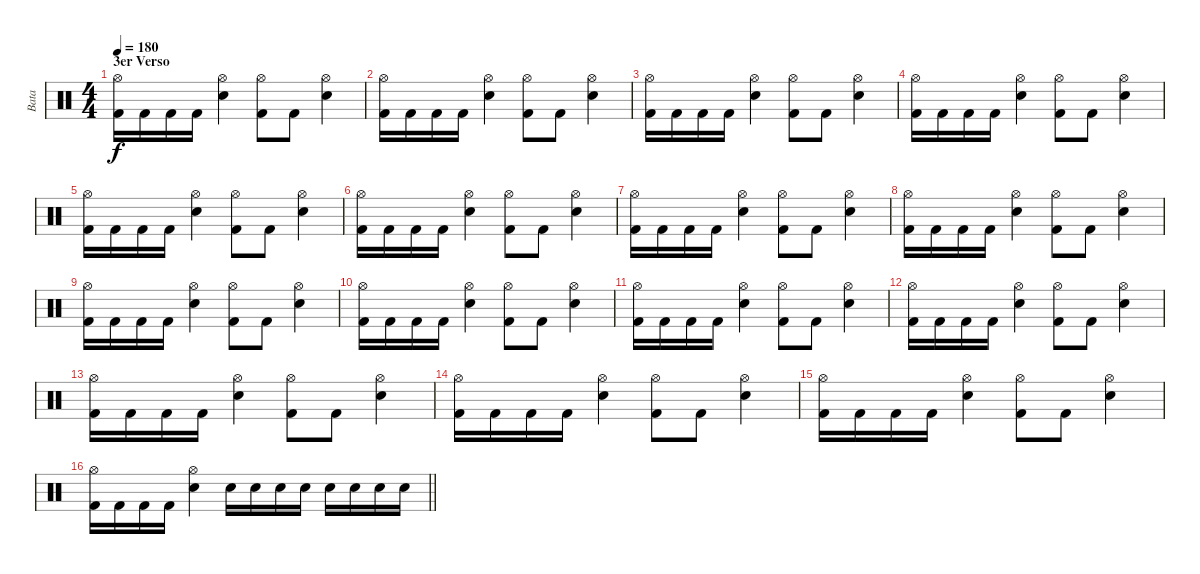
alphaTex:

\track ("Bata" "Bata") {instrument percussion}
\staff {score}
\articulation defaults
\ts (4 4)
\section ("" "3er Verso")
\tempo 180
\clef neutral
\ks c
("Hi-Hat (open)" "Kick (hit) 2").16{dy f} "Kick (hit) 2".16 "Kick (hit) 2".16 "Kick (hit) 2".16 ("Hi-Hat (open)" "Snare (hit) 2").4 ("Hi-Hat (open)" "Kick (hit) 2").8 "Kick (hit) 2".8 ("Hi-Hat (open)" "Snare (hit) 2").4 |
("Hi-Hat (open)" "Kick (hit) 2").16 "Kick (hit) 2".16 "Kick (hit) 2".16 "Kick (hit) 2".16 ("Hi-Hat (open)" "Snare (hit) 2").4 ("Hi-Hat (open)" "Kick (hit) 2").8 "Kick (hit) 2".8 ("Hi-Hat (open)" "Snare (hit) 2").4 |
("Hi-Hat (open)" "Kick (hit) 2").16 "Kick (hit) 2".16 "Kick (hit) 2".16 "Kick (hit) 2".16 ("Hi-Hat (open)" "Snare (hit) 2").4 ("Hi-Hat (open)" "Kick (hit) 2").8 "Kick (hit) 2".8 ("Hi-Hat (open)" "Snare (hit) 2").4 |
("Hi-Hat (open)" "Kick (hit) 2").16 "Kick (hit) 2".16 "Kick (hit) 2".16 "Kick (hit) 2".16 ("Hi-Hat (open)" "Snare (hit) 2").4 ("Hi-Hat (open)" "Kick (hit) 2").8 "Kick (hit) 2".8 ("Hi-Hat (open)" "Snare (hit) 2").4 |
("Hi-Hat (open)" "Kick (hit) 2").16 "Kick (hit) 2".16 "Kick (hit) 2".16 "Kick (hit) 2".16 ("Hi-Hat (open)" "Snare (hit) 2").4 ("Hi-Hat (open)" "Kick (hit) 2").8 "Kick (hit) 2".8 ("Hi-Hat (open)" "Snare (hit) 2").4 |
("Hi-Hat (open)" "Kick (hit) 2").16 "Kick (hit) 2".16 "Kick (hit) 2".16 "Kick (hit) 2".16 ("Hi-Hat (open)" "Snare (hit) 2").4 ("Hi-Hat (open)" "Kick (hit) 2").8 "Kick (hit) 2".8 ("Hi-Hat (open)" "Snare (hit) 2").4 |
("Hi-Hat (open)" "Kick (hit) 2").16 "Kick (hit) 2".16 "Kick (hit) 2".16 "Kick (hit) 2".16 ("Hi-Hat (open)" "Snare (hit) 2").4 ("Hi-Hat (open)" "Kick (hit) 2").8 "Kick (hit) 2".8 ("Hi-Hat (open)" "Snare (hit) 2").4 |
("Hi-Hat (open)" "Kick (hit) 2").16 "Kick (hit) 2".16 "Kick (hit) 2".16 "Kick (hit) 2".16 ("Hi-Hat (open)" "Snare (hit) 2").4 ("Hi-Hat (open)" "Kick (hit) 2").8 "Kick (hit) 2".8 ("Hi-Hat (open)" "Snare (hit) 2").4 |
("Hi-Hat (open)" "Kick (hit) 2").16 "Kick (hit) 2".16 "Kick (hit) 2".16 "Kick (hit) 2".16 ("Hi-Hat (open)" "Snare (hit) 2").4 ("Hi-Hat (open)" "Kick (hit) 2").8 "Kick (hit) 2".8 ("Hi-Hat (open)" "Snare (hit) 2").4 |
("Hi-Hat (open)" "Kick (hit) 2").16 "Kick (hit) 2".16 "Kick (hit) 2".16 "Kick (hit) 2".16 ("Hi-Hat (open)" "Snare (hit) 2").4 ("Hi-Hat (open)" "Kick (hit) 2").8 "Kick (hit) 2".8 ("Hi-Hat (open)" "Snare (hit) 2").4 |
("Hi-Hat (open)" "Kick (hit) 2").16 "Kick (hit) 2".16 "Kick (hit) 2".16 "Kick (hit) 2".16 ("Hi-Hat (open)" "Snare (hit) 2").4 ("Hi-Hat (open)" "Kick (hit) 2").8 "Kick (hit) 2".8 ("Hi-Hat (open)" "Snare (hit) 2").4 |
("Hi-Hat (open)" "Kick (hit) 2").16 "Kick (hit) 2".16 "Kick (hit) 2".16 "Kick (hit) 2".16 ("Hi-Hat (open)" "Snare (hit) 2").4 ("Hi-Hat (open)" "Kick (hit) 2").8 "Kick (hit) 2".8 ("Hi-Hat (open)" "Snare (hit) 2").4 |
("Hi-Hat (open)" "Kick (hit) 2").16 "Kick (hit) 2".16 "Kick (hit) 2".16 "Kick (hit) 2".16 ("Hi-Hat (open)" "Snare (hit) 2").4 ("Hi-Hat (open)" "Kick (hit) 2").8 "Kick (hit) 2".8 ("Hi-Hat (open)" "Snare (hit) 2").4 |
("Hi-Hat (open)" "Kick (hit) 2").16 "Kick (hit) 2".16 "Kick (hit) 2".16 "Kick (hit) 2".16 ("Hi-Hat (open)" "Snare (hit) 2").4 ("Hi-Hat (open)" "Kick (hit) 2").8 "Kick (hit) 2".8 ("Hi-Hat (open)" "Snare (hit) 2").4 |
("Hi-Hat (open)" "Kick (hit) 2").16 "Kick (hit) 2".16 "Kick (hit) 2".16 "Kick (hit) 2".16 ("Hi-Hat (open)" "Snare (hit) 2").4 ("Hi-Hat (open)" "Kick (hit) 2").8 "Kick (hit) 2".8 ("Hi-Hat (open)" "Snare (hit) 2").4 |
\barLineRight lightlight
("Hi-Hat (open)" "Kick (hit) 2").16 "Kick (hit) 2".16 "Kick (hit) 2".16 "Kick (hit) 2".16 ("Hi-Hat (open)" "Snare (hit) 2").4 "Snare (hit) 2".16 "Snare (hit) 2".16 "Snare (hit) 2".16 "Snare (hit) 2".16 "Snare (hit) 2".16 "Snare (hit) 2".16 "Snare (hit) 2".16 "Snare (hit) 2".16
